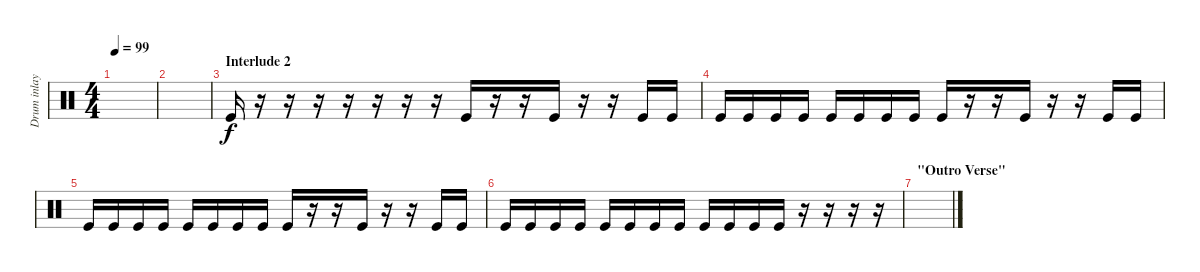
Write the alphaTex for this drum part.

\track ("Drum inlays" "Drum inlay") {instrument percussion}
\staff {score}
\articulation defaults
\ts (4 4)
\tempo 99
\clef neutral
\ks c
|
|
\section ("" "Interlude 2")
"Kick (hit)".16 r.16 r.16 r.16 r.16 r.16 r.16 r.16 "Kick (hit)".16 r.16 r.16 "Kick (hit)".16 r.16 r.16 "Kick (hit)".16 "Kick (hit)".16 |
"Kick (hit)".16{volume 10} "Kick (hit)".16 "Kick (hit)".16{volume 8} "Kick (hit)".16 "Kick (hit)".16{volume 5} "Kick (hit)".16 "Kick (hit)".16{volume 2} "Kick (hit)".16 "Kick (hit)".16{volume 10} r.16 r.16 "Kick (hit)".16 r.16 r.16 "Kick (hit)".16 "Kick (hit)".16 |
"Kick (hit)".16{volume 10} "Kick (hit)".16 "Kick (hit)".16{volume 8} "Kick (hit)".16 "Kick (hit)".16{volume 5} "Kick (hit)".16 "Kick (hit)".16{volume 2} "Kick (hit)".16 "Kick (hit)".16{volume 10} r.16 r.16 "Kick (hit)".16 r.16 r.16 "Kick (hit)".16 "Kick (hit)".16 |
"Kick (hit)".16{volume 10} "Kick (hit)".16 "Kick (hit)".16{volume 9} "Kick (hit)".16 "Kick (hit)".16{volume 8} "Kick (hit)".16 "Kick (hit)".16{volume 7} "Kick (hit)".16 "Kick (hit)".16{volume 6} "Kick (hit)".16 "Kick (hit)".16{volume 5} "Kick (hit)".16 r.16{volume 15} r.16 r.16 r.16 |
\section ("" "\"Outro Verse\"")
